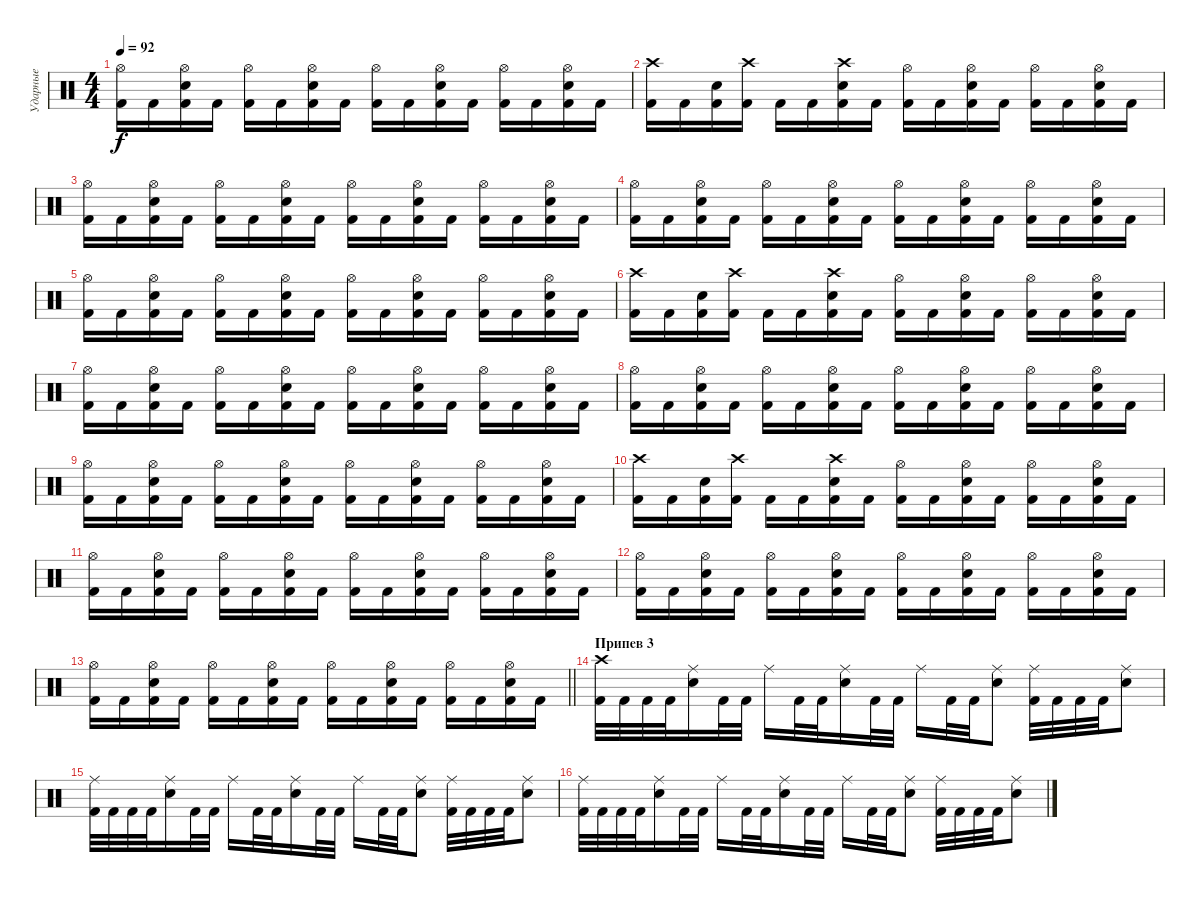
\track ("Ударные" "Ударные") {instrument percussion}
\staff {score}
\articulation defaults
\ts (4 4)
\tempo 92
\clef neutral
\ks c
("Hi-Hat (open)" "Kick (hit) 2").16{dy f} "Kick (hit) 2".16 ("Electric Snare (hit)" "Hi-Hat (open)" "Kick (hit) 2").16 "Kick (hit) 2".16 ("Hi-Hat (open)" "Kick (hit) 2").16 "Kick (hit) 2".16 ("Electric Snare (hit)" "Hi-Hat (open)" "Kick (hit) 2").16 "Kick (hit) 2".16 ("Hi-Hat (open)" "Kick (hit) 2").16 "Kick (hit) 2".16 ("Electric Snare (hit)" "Hi-Hat (open)" "Kick (hit) 2").16 "Kick (hit) 2".16 ("Hi-Hat (open)" "Kick (hit) 2").16 "Kick (hit) 2".16 ("Electric Snare (hit)" "Hi-Hat (open)" "Kick (hit) 2").16 "Kick (hit) 2".16 |
("Crash high (hit)" "Kick (hit) 2").16 "Kick (hit) 2".16 ("Electric Snare (hit)" "Kick (hit) 2").16 ("Crash high (hit)" "Kick (hit) 2").16 "Kick (hit) 2".16 "Kick (hit) 2".16 ("Electric Snare (hit)" "Crash high (hit)" "Kick (hit) 2").16 "Kick (hit) 2".16 ("Hi-Hat (open)" "Kick (hit) 2").16 "Kick (hit) 2".16 ("Electric Snare (hit)" "Hi-Hat (open)" "Kick (hit) 2").16 "Kick (hit) 2".16 ("Hi-Hat (open)" "Kick (hit) 2").16 "Kick (hit) 2".16 ("Electric Snare (hit)" "Hi-Hat (open)" "Kick (hit) 2").16 "Kick (hit) 2".16 |
("Hi-Hat (open)" "Kick (hit) 2").16 "Kick (hit) 2".16 ("Electric Snare (hit)" "Hi-Hat (open)" "Kick (hit) 2").16 "Kick (hit) 2".16 ("Hi-Hat (open)" "Kick (hit) 2").16 "Kick (hit) 2".16 ("Electric Snare (hit)" "Hi-Hat (open)" "Kick (hit) 2").16 "Kick (hit) 2".16 ("Hi-Hat (open)" "Kick (hit) 2").16 "Kick (hit) 2".16 ("Electric Snare (hit)" "Hi-Hat (open)" "Kick (hit) 2").16 "Kick (hit) 2".16 ("Hi-Hat (open)" "Kick (hit) 2").16 "Kick (hit) 2".16 ("Electric Snare (hit)" "Hi-Hat (open)" "Kick (hit) 2").16 "Kick (hit) 2".16 |
("Hi-Hat (open)" "Kick (hit) 2").16 "Kick (hit) 2".16 ("Electric Snare (hit)" "Hi-Hat (open)" "Kick (hit) 2").16 "Kick (hit) 2".16 ("Hi-Hat (open)" "Kick (hit) 2").16 "Kick (hit) 2".16 ("Electric Snare (hit)" "Hi-Hat (open)" "Kick (hit) 2").16 "Kick (hit) 2".16 ("Hi-Hat (open)" "Kick (hit) 2").16 "Kick (hit) 2".16 ("Electric Snare (hit)" "Hi-Hat (open)" "Kick (hit) 2").16 "Kick (hit) 2".16 ("Hi-Hat (open)" "Kick (hit) 2").16 "Kick (hit) 2".16 ("Electric Snare (hit)" "Hi-Hat (open)" "Kick (hit) 2").16 "Kick (hit) 2".16 |
("Hi-Hat (open)" "Kick (hit) 2").16 "Kick (hit) 2".16 ("Electric Snare (hit)" "Hi-Hat (open)" "Kick (hit) 2").16 "Kick (hit) 2".16 ("Hi-Hat (open)" "Kick (hit) 2").16 "Kick (hit) 2".16 ("Electric Snare (hit)" "Hi-Hat (open)" "Kick (hit) 2").16 "Kick (hit) 2".16 ("Hi-Hat (open)" "Kick (hit) 2").16 "Kick (hit) 2".16 ("Electric Snare (hit)" "Hi-Hat (open)" "Kick (hit) 2").16 "Kick (hit) 2".16 ("Hi-Hat (open)" "Kick (hit) 2").16 "Kick (hit) 2".16 ("Electric Snare (hit)" "Hi-Hat (open)" "Kick (hit) 2").16 "Kick (hit) 2".16 |
("Crash high (hit)" "Kick (hit) 2").16 "Kick (hit) 2".16 ("Electric Snare (hit)" "Kick (hit) 2").16 ("Crash high (hit)" "Kick (hit) 2").16 "Kick (hit) 2".16 "Kick (hit) 2".16 ("Electric Snare (hit)" "Crash high (hit)" "Kick (hit) 2").16 "Kick (hit) 2".16 ("Hi-Hat (open)" "Kick (hit) 2").16 "Kick (hit) 2".16 ("Electric Snare (hit)" "Hi-Hat (open)" "Kick (hit) 2").16 "Kick (hit) 2".16 ("Hi-Hat (open)" "Kick (hit) 2").16 "Kick (hit) 2".16 ("Electric Snare (hit)" "Hi-Hat (open)" "Kick (hit) 2").16 "Kick (hit) 2".16 |
("Hi-Hat (open)" "Kick (hit) 2").16 "Kick (hit) 2".16 ("Electric Snare (hit)" "Hi-Hat (open)" "Kick (hit) 2").16 "Kick (hit) 2".16 ("Hi-Hat (open)" "Kick (hit) 2").16 "Kick (hit) 2".16 ("Electric Snare (hit)" "Hi-Hat (open)" "Kick (hit) 2").16 "Kick (hit) 2".16 ("Hi-Hat (open)" "Kick (hit) 2").16 "Kick (hit) 2".16 ("Electric Snare (hit)" "Hi-Hat (open)" "Kick (hit) 2").16 "Kick (hit) 2".16 ("Hi-Hat (open)" "Kick (hit) 2").16 "Kick (hit) 2".16 ("Electric Snare (hit)" "Hi-Hat (open)" "Kick (hit) 2").16 "Kick (hit) 2".16 |
("Hi-Hat (open)" "Kick (hit) 2").16 "Kick (hit) 2".16 ("Electric Snare (hit)" "Hi-Hat (open)" "Kick (hit) 2").16 "Kick (hit) 2".16 ("Hi-Hat (open)" "Kick (hit) 2").16 "Kick (hit) 2".16 ("Electric Snare (hit)" "Hi-Hat (open)" "Kick (hit) 2").16 "Kick (hit) 2".16 ("Hi-Hat (open)" "Kick (hit) 2").16 "Kick (hit) 2".16 ("Electric Snare (hit)" "Hi-Hat (open)" "Kick (hit) 2").16 "Kick (hit) 2".16 ("Hi-Hat (open)" "Kick (hit) 2").16 "Kick (hit) 2".16 ("Electric Snare (hit)" "Hi-Hat (open)" "Kick (hit) 2").16 "Kick (hit) 2".16 |
("Hi-Hat (open)" "Kick (hit) 2").16 "Kick (hit) 2".16 ("Electric Snare (hit)" "Hi-Hat (open)" "Kick (hit) 2").16 "Kick (hit) 2".16 ("Hi-Hat (open)" "Kick (hit) 2").16 "Kick (hit) 2".16 ("Electric Snare (hit)" "Hi-Hat (open)" "Kick (hit) 2").16 "Kick (hit) 2".16 ("Hi-Hat (open)" "Kick (hit) 2").16 "Kick (hit) 2".16 ("Electric Snare (hit)" "Hi-Hat (open)" "Kick (hit) 2").16 "Kick (hit) 2".16 ("Hi-Hat (open)" "Kick (hit) 2").16 "Kick (hit) 2".16 ("Electric Snare (hit)" "Hi-Hat (open)" "Kick (hit) 2").16 "Kick (hit) 2".16 |
("Crash high (hit)" "Kick (hit) 2").16 "Kick (hit) 2".16 ("Electric Snare (hit)" "Kick (hit) 2").16 ("Crash high (hit)" "Kick (hit) 2").16 "Kick (hit) 2".16 "Kick (hit) 2".16 ("Electric Snare (hit)" "Crash high (hit)" "Kick (hit) 2").16 "Kick (hit) 2".16 ("Hi-Hat (open)" "Kick (hit) 2").16 "Kick (hit) 2".16 ("Electric Snare (hit)" "Hi-Hat (open)" "Kick (hit) 2").16 "Kick (hit) 2".16 ("Hi-Hat (open)" "Kick (hit) 2").16 "Kick (hit) 2".16 ("Electric Snare (hit)" "Hi-Hat (open)" "Kick (hit) 2").16 "Kick (hit) 2".16 |
("Hi-Hat (open)" "Kick (hit) 2").16 "Kick (hit) 2".16 ("Electric Snare (hit)" "Hi-Hat (open)" "Kick (hit) 2").16 "Kick (hit) 2".16 ("Hi-Hat (open)" "Kick (hit) 2").16 "Kick (hit) 2".16 ("Electric Snare (hit)" "Hi-Hat (open)" "Kick (hit) 2").16 "Kick (hit) 2".16 ("Hi-Hat (open)" "Kick (hit) 2").16 "Kick (hit) 2".16 ("Electric Snare (hit)" "Hi-Hat (open)" "Kick (hit) 2").16 "Kick (hit) 2".16 ("Hi-Hat (open)" "Kick (hit) 2").16 "Kick (hit) 2".16 ("Electric Snare (hit)" "Hi-Hat (open)" "Kick (hit) 2").16 "Kick (hit) 2".16 |
("Hi-Hat (open)" "Kick (hit) 2").16 "Kick (hit) 2".16 ("Electric Snare (hit)" "Hi-Hat (open)" "Kick (hit) 2").16 "Kick (hit) 2".16 ("Hi-Hat (open)" "Kick (hit) 2").16 "Kick (hit) 2".16 ("Electric Snare (hit)" "Hi-Hat (open)" "Kick (hit) 2").16 "Kick (hit) 2".16 ("Hi-Hat (open)" "Kick (hit) 2").16 "Kick (hit) 2".16 ("Electric Snare (hit)" "Hi-Hat (open)" "Kick (hit) 2").16 "Kick (hit) 2".16 ("Hi-Hat (open)" "Kick (hit) 2").16 "Kick (hit) 2".16 ("Electric Snare (hit)" "Hi-Hat (open)" "Kick (hit) 2").16 "Kick (hit) 2".16 |
\barLineRight lightlight
("Hi-Hat (open)" "Kick (hit) 2").16 "Kick (hit) 2".16 ("Electric Snare (hit)" "Hi-Hat (open)" "Kick (hit) 2").16 "Kick (hit) 2".16 ("Hi-Hat (open)" "Kick (hit) 2").16 "Kick (hit) 2".16 ("Electric Snare (hit)" "Hi-Hat (open)" "Kick (hit) 2").16 "Kick (hit) 2".16 ("Hi-Hat (open)" "Kick (hit) 2").16 "Kick (hit) 2".16 ("Electric Snare (hit)" "Hi-Hat (open)" "Kick (hit) 2").16 "Kick (hit) 2".16 ("Hi-Hat (open)" "Kick (hit) 2").16 "Kick (hit) 2".16 ("Electric Snare (hit)" "Hi-Hat (open)" "Kick (hit) 2").16 "Kick (hit) 2".16 |
\section ("" "Припев 3")
("Crash high (hit)" "Kick (hit) 2").32 "Kick (hit) 2".32 "Kick (hit) 2".32 "Kick (hit) 2".32 ("Ride (middle)" "Electric Snare (hit)").16 "Kick (hit) 2".32 "Kick (hit) 2".32 "Ride (middle)".16 "Kick (hit) 2".32 "Kick (hit) 2".32 ("Electric Snare (hit)" "Ride (middle)").16 "Kick (hit) 2".32 "Kick (hit) 2".32 "Ride (middle)".16 "Kick (hit) 2".32 "Kick (hit) 2".32 ("Electric Snare (hit)" "Ride (middle)").8 ("Kick (hit) 2" "Ride (middle)").32 "Kick (hit) 2".32 "Kick (hit) 2".32 "Kick (hit) 2".32 ("Electric Snare (hit)" "Ride (middle)").8 |
("Ride (middle)" "Kick (hit) 2").32 "Kick (hit) 2".32 "Kick (hit) 2".32 "Kick (hit) 2".32 ("Ride (middle)" "Electric Snare (hit)").16 "Kick (hit) 2".32 "Kick (hit) 2".32 "Ride (middle)".16 "Kick (hit) 2".32 "Kick (hit) 2".32 ("Electric Snare (hit)" "Ride (middle)").16 "Kick (hit) 2".32 "Kick (hit) 2".32 "Ride (middle)".16 "Kick (hit) 2".32 "Kick (hit) 2".32 ("Electric Snare (hit)" "Ride (middle)").8 ("Kick (hit) 2" "Ride (middle)").32 "Kick (hit) 2".32 "Kick (hit) 2".32 "Kick (hit) 2".32 ("Electric Snare (hit)" "Ride (middle)").8 |
("Ride (middle)" "Kick (hit) 2").32 "Kick (hit) 2".32 "Kick (hit) 2".32 "Kick (hit) 2".32 ("Ride (middle)" "Electric Snare (hit)").16 "Kick (hit) 2".32 "Kick (hit) 2".32 "Ride (middle)".16 "Kick (hit) 2".32 "Kick (hit) 2".32 ("Electric Snare (hit)" "Ride (middle)").16 "Kick (hit) 2".32 "Kick (hit) 2".32 "Ride (middle)".16 "Kick (hit) 2".32 "Kick (hit) 2".32 ("Electric Snare (hit)" "Ride (middle)").8 ("Kick (hit) 2" "Ride (middle)").32 "Kick (hit) 2".32 "Kick (hit) 2".32 "Kick (hit) 2".32 ("Electric Snare (hit)" "Ride (middle)").8
